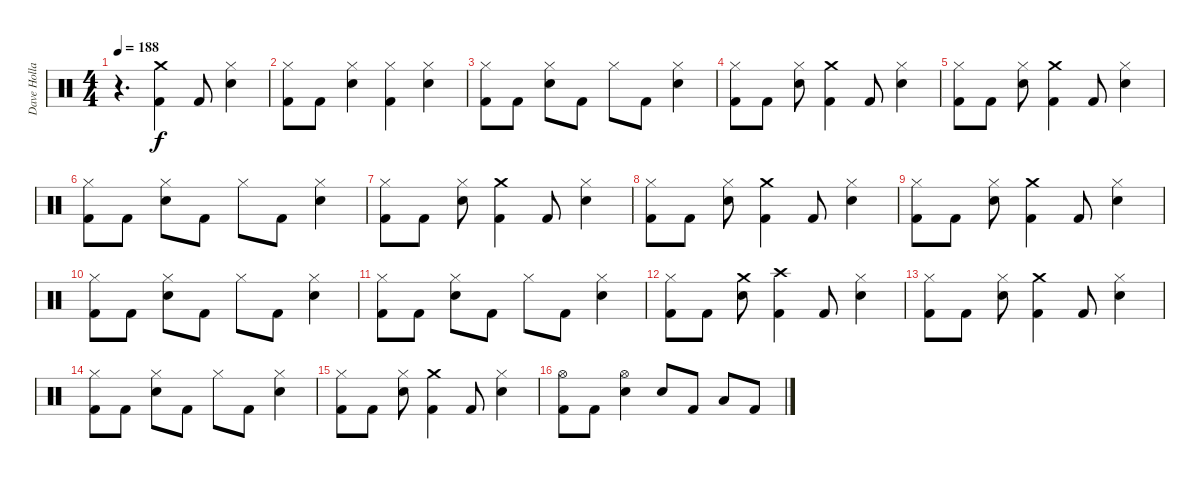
\track ("Dave Holland" "Dave Holla") {instrument percussion}
\staff {score}
\articulation defaults
\ts (4 4)
\tempo 188
\clef neutral
\ks c
r.4{d dy f} ("Crash medium (hit)" "Kick (hit) 2").4 "Kick (hit) 2".8 ("Snare (hit) 2" "Hi-Hat (closed)").4 |
("Kick (hit) 2" "Hi-Hat (closed)").8 "Kick (hit) 2".8 ("Snare (hit) 2" "Hi-Hat (closed)").4 ("Kick (hit) 2" "Hi-Hat (closed)").4 ("Snare (hit) 2" "Hi-Hat (closed)").4 |
("Kick (hit) 2" "Hi-Hat (closed)").8 "Kick (hit) 2".8 ("Snare (hit) 2" "Hi-Hat (closed)").8 "Kick (hit) 2".8 "Hi-Hat (closed)".8 "Kick (hit) 2".8 ("Snare (hit) 2" "Hi-Hat (closed)").4 |
("Kick (hit) 2" "Hi-Hat (closed)").8 "Kick (hit) 2".8 ("Snare (hit) 2" "Hi-Hat (closed)").8 ("Kick (hit) 2" "Crash medium (hit)").4 "Kick (hit) 2".8 ("Snare (hit) 2" "Hi-Hat (closed)").4 |
("Kick (hit) 2" "Hi-Hat (closed)").8 "Kick (hit) 2".8 ("Snare (hit) 2" "Hi-Hat (closed)").8 ("Kick (hit) 2" "Crash medium (hit)").4 "Kick (hit) 2".8 ("Snare (hit) 2" "Hi-Hat (closed)").4 |
("Kick (hit) 2" "Hi-Hat (closed)").8 "Kick (hit) 2".8 ("Snare (hit) 2" "Hi-Hat (closed)").8 "Kick (hit) 2".8 "Hi-Hat (closed)".8 "Kick (hit) 2".8 ("Snare (hit) 2" "Hi-Hat (closed)").4 |
("Kick (hit) 2" "Hi-Hat (closed)").8 "Kick (hit) 2".8 ("Snare (hit) 2" "Hi-Hat (closed)").8 ("Kick (hit) 2" "Crash medium (hit)").4 "Kick (hit) 2".8 ("Snare (hit) 2" "Hi-Hat (closed)").4 |
("Kick (hit) 2" "Hi-Hat (closed)").8 "Kick (hit) 2".8 ("Snare (hit) 2" "Hi-Hat (closed)").8 ("Kick (hit) 2" "Crash medium (hit)").4 "Kick (hit) 2".8 ("Snare (hit) 2" "Hi-Hat (closed)").4 |
("Kick (hit) 2" "Hi-Hat (closed)").8 "Kick (hit) 2".8 ("Snare (hit) 2" "Hi-Hat (closed)").8 ("Kick (hit) 2" "Crash medium (hit)").4 "Kick (hit) 2".8 ("Snare (hit) 2" "Hi-Hat (closed)").4 |
("Kick (hit) 2" "Hi-Hat (closed)").8 "Kick (hit) 2".8 ("Snare (hit) 2" "Hi-Hat (closed)").8 "Kick (hit) 2".8 "Hi-Hat (closed)".8 "Kick (hit) 2".8 ("Snare (hit) 2" "Hi-Hat (closed)").4 |
("Kick (hit) 2" "Hi-Hat (closed)").8 "Kick (hit) 2".8 ("Snare (hit) 2" "Hi-Hat (closed)").8 "Kick (hit) 2".8 "Hi-Hat (closed)".8 "Kick (hit) 2".8 ("Snare (hit) 2" "Hi-Hat (closed)").4 |
("Kick (hit) 2" "Hi-Hat (closed)").8 "Kick (hit) 2".8 ("Crash medium (hit)" "Snare (hit) 2").8 ("Crash high (hit)" "Kick (hit) 2").4 "Kick (hit) 2".8 ("Snare (hit) 2" "Hi-Hat (closed)").4 |
("Kick (hit) 2" "Hi-Hat (closed)").8 "Kick (hit) 2".8 ("Snare (hit) 2" "Hi-Hat (closed)").8 ("Kick (hit) 2" "Crash medium (hit)").4 "Kick (hit) 2".8 ("Snare (hit) 2" "Hi-Hat (closed)").4 |
("Kick (hit) 2" "Hi-Hat (closed)").8 "Kick (hit) 2".8 ("Snare (hit) 2" "Hi-Hat (closed)").8 "Kick (hit) 2".8 "Hi-Hat (closed)".8 "Kick (hit) 2".8 ("Snare (hit) 2" "Hi-Hat (closed)").4 |
("Kick (hit) 2" "Hi-Hat (closed)").8 "Kick (hit) 2".8 ("Snare (hit) 2" "Hi-Hat (closed)").8 ("Kick (hit) 2" "Crash medium (hit)").4 "Kick (hit) 2".8 ("Snare (hit) 2" "Hi-Hat (closed)").4 |
("Kick (hit) 2" "Hi-Hat (open)").8 "Kick (hit) 2".8 ("Snare (hit) 2" "Hi-Hat (open)").4 "Snare (hit) 2".8 "Kick (hit) 2".8 "Low Tom (hit)".8 "Kick (hit) 2".8
